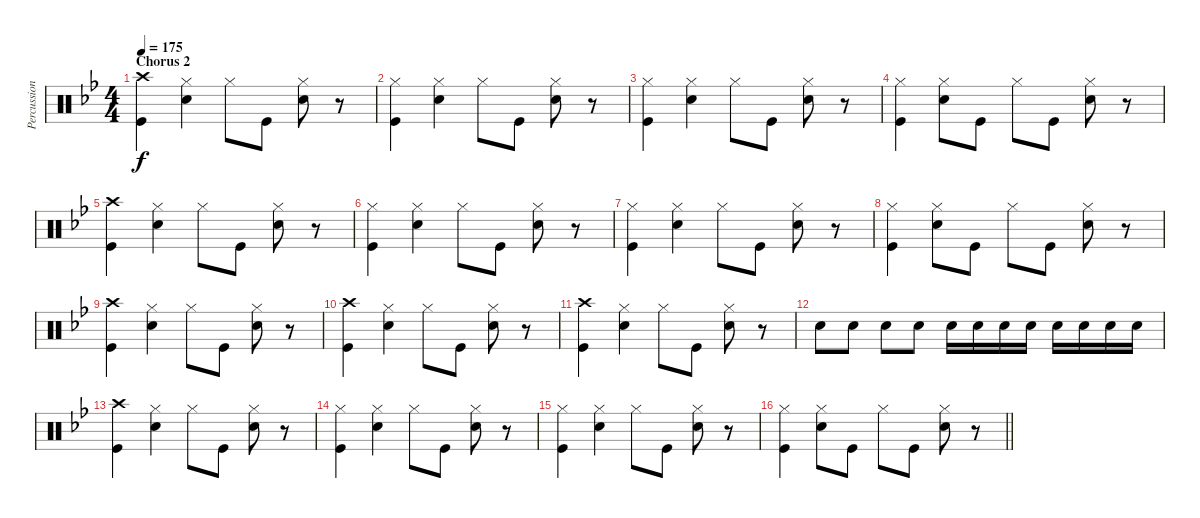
\track ("Percussion" "Percussion") {instrument percussion}
\staff {score}
\articulation defaults
\ts (4 4)
\section ("" "Chorus 2")
\tempo 175
\clef neutral
\ks bb
("Kick (hit)" "Crash high (hit)").4{dy f} ("Snare (hit) 2" "Hi-Hat (closed)").4 "Hi-Hat (closed)".8 "Kick (hit)".8 ("Snare (hit) 2" "Hi-Hat (closed)").8 r.8 |
("Kick (hit)" "Hi-Hat (closed)").4 ("Snare (hit) 2" "Hi-Hat (closed)").4 "Hi-Hat (closed)".8 "Kick (hit)".8 ("Snare (hit) 2" "Hi-Hat (closed)").8 r.8 |
("Kick (hit)" "Hi-Hat (closed)").4 ("Snare (hit) 2" "Hi-Hat (closed)").4 "Hi-Hat (closed)".8 "Kick (hit)".8 ("Snare (hit) 2" "Hi-Hat (closed)").8 r.8 |
("Kick (hit)" "Hi-Hat (closed)").4 ("Snare (hit) 2" "Hi-Hat (closed)").8 "Kick (hit)".8 "Hi-Hat (closed)".8 "Kick (hit)".8 ("Snare (hit) 2" "Hi-Hat (closed)").8 r.8 |
("Kick (hit)" "Crash high (hit)").4 ("Snare (hit) 2" "Hi-Hat (closed)").4 "Hi-Hat (closed)".8 "Kick (hit)".8 ("Snare (hit) 2" "Hi-Hat (closed)").8 r.8 |
("Kick (hit)" "Hi-Hat (closed)").4 ("Snare (hit) 2" "Hi-Hat (closed)").4 "Hi-Hat (closed)".8 "Kick (hit)".8 ("Snare (hit) 2" "Hi-Hat (closed)").8 r.8 |
("Kick (hit)" "Hi-Hat (closed)").4 ("Snare (hit) 2" "Hi-Hat (closed)").4 "Hi-Hat (closed)".8 "Kick (hit)".8 ("Snare (hit) 2" "Hi-Hat (closed)").8 r.8 |
("Kick (hit)" "Hi-Hat (closed)").4 ("Snare (hit) 2" "Hi-Hat (closed)").8 "Kick (hit)".8 "Hi-Hat (closed)".8 "Kick (hit)".8 ("Snare (hit) 2" "Hi-Hat (closed)").8 r.8 |
("Kick (hit)" "Crash high (hit)").4 ("Snare (hit) 2" "Hi-Hat (closed)").4 "Hi-Hat (closed)".8 "Kick (hit)".8 ("Snare (hit) 2" "Hi-Hat (closed)").8 r.8 |
("Kick (hit)" "Crash high (hit)").4 ("Snare (hit) 2" "Hi-Hat (closed)").4 "Hi-Hat (closed)".8 "Kick (hit)".8 ("Snare (hit) 2" "Hi-Hat (closed)").8 r.8 |
("Kick (hit)" "Crash high (hit)").4 ("Snare (hit) 2" "Hi-Hat (closed)").4 "Hi-Hat (closed)".8 "Kick (hit)".8 ("Snare (hit) 2" "Hi-Hat (closed)").8 r.8 |
"Snare (hit) 2".8 "Snare (hit) 2".8 "Snare (hit) 2".8 "Snare (hit) 2".8 "Snare (hit) 2".16 "Snare (hit) 2".16 "Snare (hit) 2".16 "Snare (hit) 2".16 "Snare (hit) 2".16 "Snare (hit) 2".16 "Snare (hit) 2".16 "Snare (hit) 2".16 |
("Kick (hit)" "Crash high (hit)").4 ("Snare (hit) 2" "Hi-Hat (closed)").4 "Hi-Hat (closed)".8 "Kick (hit)".8 ("Snare (hit) 2" "Hi-Hat (closed)").8 r.8 |
("Kick (hit)" "Hi-Hat (closed)").4 ("Snare (hit) 2" "Hi-Hat (closed)").4 "Hi-Hat (closed)".8 "Kick (hit)".8 ("Snare (hit) 2" "Hi-Hat (closed)").8 r.8 |
("Kick (hit)" "Hi-Hat (closed)").4 ("Snare (hit) 2" "Hi-Hat (closed)").4 "Hi-Hat (closed)".8 "Kick (hit)".8 ("Snare (hit) 2" "Hi-Hat (closed)").8 r.8 |
\barLineRight lightlight
("Kick (hit)" "Hi-Hat (closed)").4 ("Snare (hit) 2" "Hi-Hat (closed)").8 "Kick (hit)".8 "Hi-Hat (closed)".8 "Kick (hit)".8 ("Snare (hit) 2" "Hi-Hat (closed)").8 r.8
